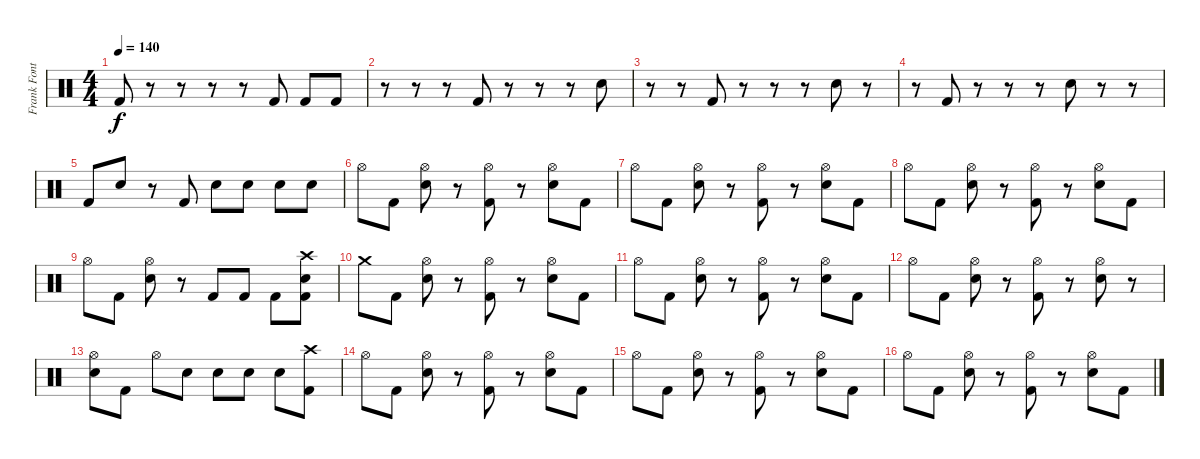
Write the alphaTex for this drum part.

\track ("Frank Fontsere" "Frank Font") {instrument percussion}
\staff {score}
\articulation defaults
\ts (4 4)
\tempo 140
\clef neutral
\ks c "Kick (hit) 2".8{dy f}
r.8 r.8 r.8 r.8 "Kick (hit) 2".8 "Kick (hit) 2".8 "Kick (hit) 2".8 |
r.8 r.8 r.8 "Kick (hit) 2".8 r.8 r.8 r.8 "Electric Snare (hit)".8 |
r.8 r.8 "Kick (hit) 2".8 r.8 r.8 r.8 "Electric Snare (hit)".8 r.8 |
r.8 "Kick (hit) 2".8 r.8 r.8 r.8 "Electric Snare (hit)".8 r.8 r.8 |
"Kick (hit) 2".8 "Electric Snare (hit)".8 r.8 "Kick (hit) 2".8 "Electric Snare (hit)".8 "Electric Snare (hit)".8 "Electric Snare (hit)".8 "Electric Snare (hit)".8 |
"Hi-Hat (open)".8 "Kick (hit) 2".8 ("Hi-Hat (open)" "Electric Snare (hit)").8 r.8 ("Hi-Hat (open)" "Kick (hit) 2").8 r.8 ("Hi-Hat (open)" "Electric Snare (hit)").8 "Kick (hit) 2".8 |
"Hi-Hat (open)".8 "Kick (hit) 2".8 ("Hi-Hat (open)" "Electric Snare (hit)").8 r.8 ("Hi-Hat (open)" "Kick (hit) 2").8 r.8 ("Hi-Hat (open)" "Electric Snare (hit)").8 "Kick (hit) 2".8 |
"Hi-Hat (open)".8 "Kick (hit) 2".8 ("Hi-Hat (open)" "Electric Snare (hit)").8 r.8 ("Hi-Hat (open)" "Kick (hit) 2").8 r.8 ("Hi-Hat (open)" "Electric Snare (hit)").8 "Kick (hit) 2".8 |
"Hi-Hat (open)".8 "Kick (hit) 2".8 ("Hi-Hat (open)" "Electric Snare (hit)").8 r.8 "Kick (hit) 2".8 "Kick (hit) 2".8 "Kick (hit) 2".8 ("Crash high (hit)" "Kick (hit) 2" "Electric Snare (hit)").8 |
"Crash medium (hit)".8 "Kick (hit) 2".8 ("Hi-Hat (open)" "Electric Snare (hit)").8 r.8 ("Hi-Hat (open)" "Kick (hit) 2").8 r.8 ("Hi-Hat (open)" "Electric Snare (hit)").8 "Kick (hit) 2".8 |
"Hi-Hat (open)".8 "Kick (hit) 2".8 ("Hi-Hat (open)" "Electric Snare (hit)").8 r.8 ("Hi-Hat (open)" "Kick (hit) 2").8 r.8 ("Hi-Hat (open)" "Electric Snare (hit)").8 "Kick (hit) 2".8 |
"Hi-Hat (open)".8 "Kick (hit) 2".8 ("Hi-Hat (open)" "Electric Snare (hit)").8 r.8 ("Hi-Hat (open)" "Kick (hit) 2").8 r.8 ("Hi-Hat (open)" "Electric Snare (hit)").8 r.8 |
("Hi-Hat (open)" "Electric Snare (hit)").8 "Kick (hit) 2".8 "Hi-Hat (open)".8 "Electric Snare (hit)".8 "Electric Snare (hit)".8 "Electric Snare (hit)".8 "Electric Snare (hit)".8 ("Crash high (hit)" "Kick (hit) 2").8 |
"Hi-Hat (open)".8 "Kick (hit) 2".8 ("Hi-Hat (open)" "Electric Snare (hit)").8 r.8 ("Hi-Hat (open)" "Kick (hit) 2").8 r.8 ("Hi-Hat (open)" "Electric Snare (hit)").8 "Kick (hit) 2".8 |
"Hi-Hat (open)".8 "Kick (hit) 2".8 ("Hi-Hat (open)" "Electric Snare (hit)").8 r.8 ("Hi-Hat (open)" "Kick (hit) 2").8 r.8 ("Hi-Hat (open)" "Electric Snare (hit)").8 "Kick (hit) 2".8 |
"Hi-Hat (open)".8 "Kick (hit) 2".8 ("Hi-Hat (open)" "Electric Snare (hit)").8 r.8 ("Hi-Hat (open)" "Kick (hit) 2").8 r.8 ("Hi-Hat (open)" "Electric Snare (hit)").8 "Kick (hit) 2".8
